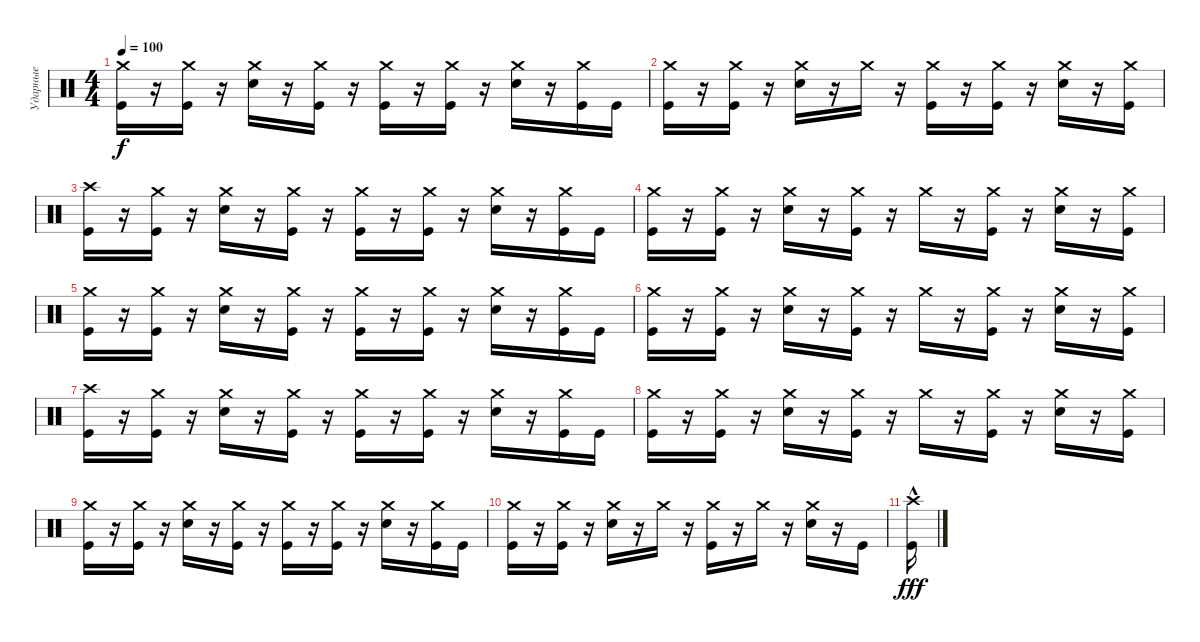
\track ("Ударные" "Ударные") {instrument percussion}
\staff {score}
\articulation defaults
\ts (4 4)
\tempo 100
\clef neutral
\ks c
("Crash medium (hit)" "Kick (hit)").16{dy f} r.16 ("Crash medium (hit)" "Kick (hit)").16 r.16 ("Crash medium (hit)" "Electric Snare (hit)").16 r.16 ("Crash medium (hit)" "Kick (hit)").16 r.16 ("Crash medium (hit)" "Kick (hit)").16 r.16 ("Crash medium (hit)" "Kick (hit)").16 r.16 ("Crash medium (hit)" "Electric Snare (hit)").16 r.16 ("Crash medium (hit)" "Kick (hit)").16 "Kick (hit)".16 |
("Crash medium (hit)" "Kick (hit)").16 r.16 ("Crash medium (hit)" "Kick (hit)").16 r.16 ("Crash medium (hit)" "Electric Snare (hit)").16 r.16 "Crash medium (hit)".16 r.16 ("Crash medium (hit)" "Kick (hit)").16 r.16 ("Crash medium (hit)" "Kick (hit)").16 r.16 ("Crash medium (hit)" "Electric Snare (hit)").16 r.16 ("Crash medium (hit)" "Kick (hit)").16 |
("Crash high (hit)" "Kick (hit)").16 r.16 ("Crash medium (hit)" "Kick (hit)").16 r.16 ("Crash medium (hit)" "Electric Snare (hit)").16 r.16 ("Crash medium (hit)" "Kick (hit)").16 r.16 ("Crash medium (hit)" "Kick (hit)").16 r.16 ("Crash medium (hit)" "Kick (hit)").16 r.16 ("Crash medium (hit)" "Electric Snare (hit)").16 r.16 ("Crash medium (hit)" "Kick (hit)").16 "Kick (hit)".16 |
("Crash medium (hit)" "Kick (hit)").16 r.16 ("Crash medium (hit)" "Kick (hit)").16 r.16 ("Crash medium (hit)" "Electric Snare (hit)").16 r.16 ("Crash medium (hit)" "Kick (hit)").16 r.16 "Crash medium (hit)".16 r.16 ("Crash medium (hit)" "Kick (hit)").16 r.16 ("Crash medium (hit)" "Electric Snare (hit)").16 r.16 ("Crash medium (hit)" "Kick (hit)").16 |
("Crash medium (hit)" "Kick (hit)").16 r.16 ("Crash medium (hit)" "Kick (hit)").16 r.16 ("Crash medium (hit)" "Electric Snare (hit)").16 r.16 ("Crash medium (hit)" "Kick (hit)").16 r.16 ("Crash medium (hit)" "Kick (hit)").16 r.16 ("Crash medium (hit)" "Kick (hit)").16 r.16 ("Crash medium (hit)" "Electric Snare (hit)").16 r.16 ("Crash medium (hit)" "Kick (hit)").16 "Kick (hit)".16 |
("Crash medium (hit)" "Kick (hit)").16 r.16 ("Crash medium (hit)" "Kick (hit)").16 r.16 ("Crash medium (hit)" "Electric Snare (hit)").16 r.16 ("Crash medium (hit)" "Kick (hit)").16 r.16 "Crash medium (hit)".16 r.16 ("Crash medium (hit)" "Kick (hit)").16 r.16 ("Crash medium (hit)" "Electric Snare (hit)").16 r.16 ("Crash medium (hit)" "Kick (hit)").16 |
("Crash high (hit)" "Kick (hit)").16 r.16 ("Crash medium (hit)" "Kick (hit)").16 r.16 ("Crash medium (hit)" "Electric Snare (hit)").16 r.16 ("Crash medium (hit)" "Kick (hit)").16 r.16 ("Crash medium (hit)" "Kick (hit)").16 r.16 ("Crash medium (hit)" "Kick (hit)").16 r.16 ("Crash medium (hit)" "Electric Snare (hit)").16 r.16 ("Crash medium (hit)" "Kick (hit)").16 "Kick (hit)".16 |
("Crash medium (hit)" "Kick (hit)").16 r.16 ("Crash medium (hit)" "Kick (hit)").16 r.16 ("Crash medium (hit)" "Electric Snare (hit)").16 r.16 ("Crash medium (hit)" "Kick (hit)").16 r.16 "Crash medium (hit)".16 r.16 ("Crash medium (hit)" "Kick (hit)").16 r.16 ("Crash medium (hit)" "Electric Snare (hit)").16 r.16 ("Crash medium (hit)" "Kick (hit)").16 |
("Crash medium (hit)" "Kick (hit)").16 r.16 ("Crash medium (hit)" "Kick (hit)").16 r.16 ("Crash medium (hit)" "Electric Snare (hit)").16 r.16 ("Crash medium (hit)" "Kick (hit)").16 r.16 ("Crash medium (hit)" "Kick (hit)").16 r.16 ("Crash medium (hit)" "Kick (hit)").16 r.16 ("Crash medium (hit)" "Electric Snare (hit)").16 r.16 ("Crash medium (hit)" "Kick (hit)").16 "Kick (hit)".16 |
("Crash medium (hit)" "Kick (hit)").16 r.16 ("Crash medium (hit)" "Kick (hit)").16 r.16 ("Crash medium (hit)" "Electric Snare (hit)").16 r.16 "Crash medium (hit)".16 r.16 ("Crash medium (hit)" "Kick (hit)").16 r.16 "Crash medium (hit)".16 r.16 ("Crash medium (hit)" "Electric Snare (hit)").16 r.16 "Kick (hit)".16 |
("Crash high (hit)"{hac} "Kick (hit)"{hac}).16{dy fff}
